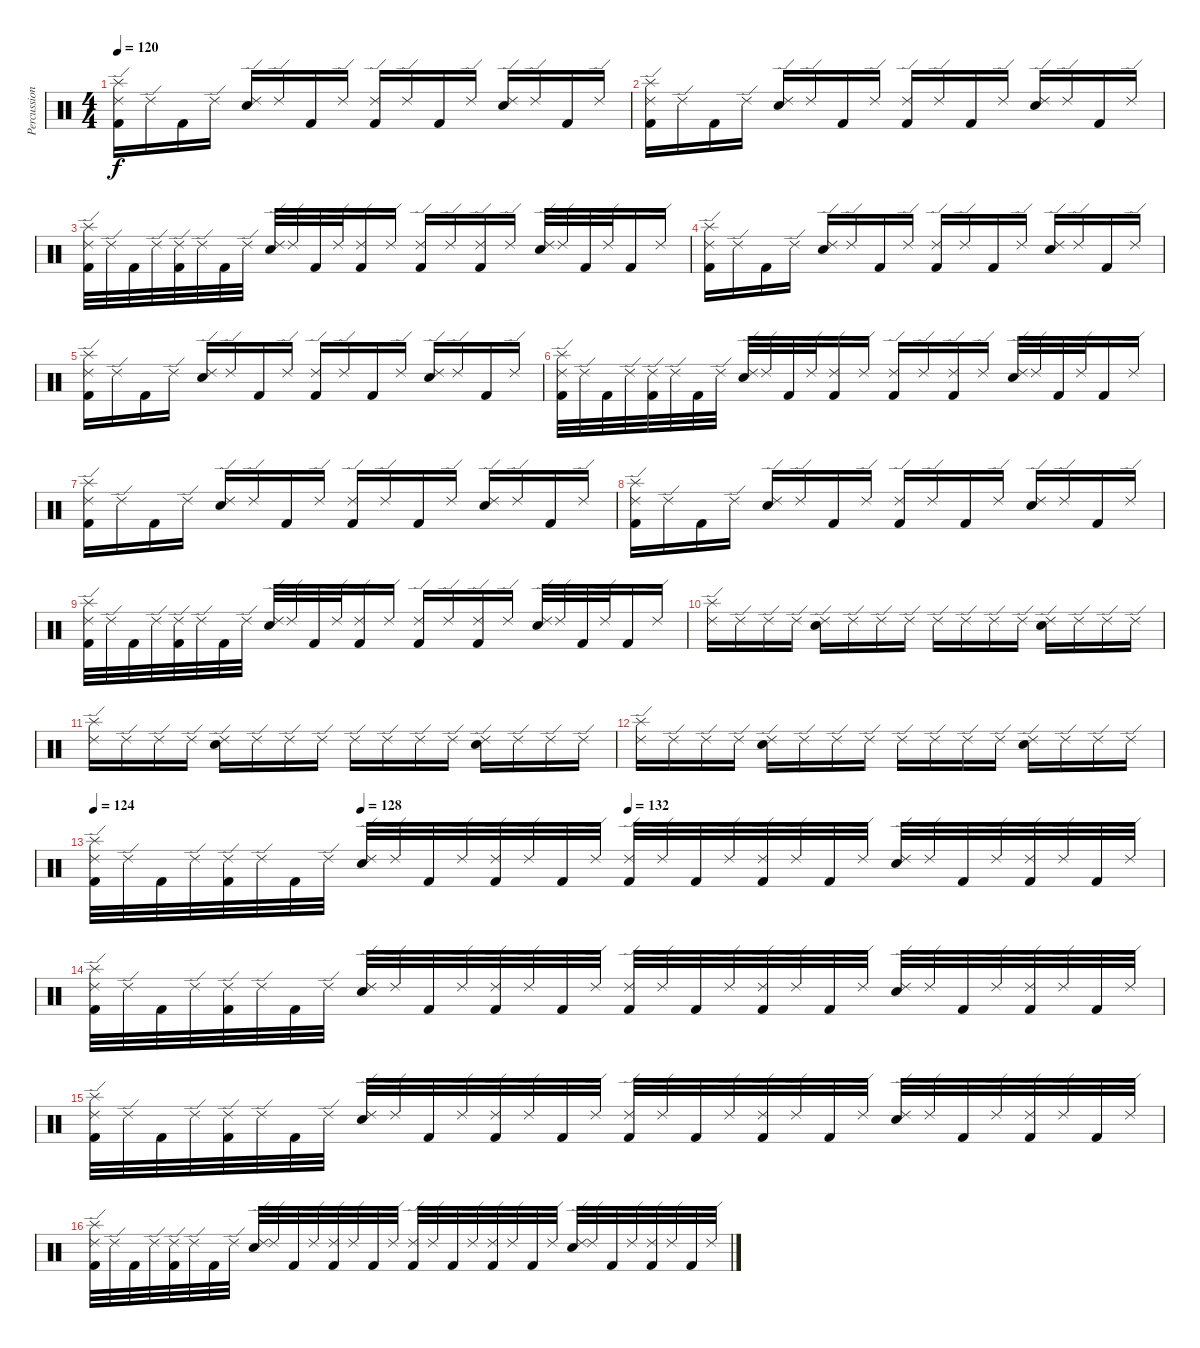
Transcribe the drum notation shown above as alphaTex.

\track ("Percussion" "Percussion") {instrument percussion}
\staff {score}
\articulation defaults
\ts (4 4)
\tempo 120
\clef neutral
\ks c
("Ride (edge) 2" "Kick (hit) 2" "Splash (hit)").16{dy f} "Ride (edge) 2".16 "Kick (hit) 2".16 "Ride (edge) 2".16 ("Snare (hit) 2" "Ride (edge) 2").16 "Ride (edge) 2".16 "Kick (hit) 2".16 "Ride (edge) 2".16 ("Ride (edge) 2" "Kick (hit) 2").16 "Ride (edge) 2".16 "Kick (hit) 2".16 "Ride (edge) 2".16 ("Snare (hit) 2" "Ride (edge) 2").16 "Ride (edge) 2".16 "Kick (hit) 2".16 "Ride (edge) 2".16 |
("Ride (edge) 2" "Kick (hit) 2" "Splash (hit)").16 "Ride (edge) 2".16 "Kick (hit) 2".16 "Ride (edge) 2".16 ("Snare (hit) 2" "Ride (edge) 2").16 "Ride (edge) 2".16 "Kick (hit) 2".16 "Ride (edge) 2".16 ("Ride (edge) 2" "Kick (hit) 2").16 "Ride (edge) 2".16 "Kick (hit) 2".16 "Ride (edge) 2".16 ("Snare (hit) 2" "Ride (edge) 2").16 "Ride (edge) 2".16 "Kick (hit) 2".16 "Ride (edge) 2".16 |
("Ride (edge) 2" "Kick (hit) 2" "Splash (hit)").32 "Ride (edge) 2".32 "Kick (hit) 2".32 "Ride (edge) 2".32 ("Kick (hit) 2" "Ride (edge) 2").32 "Ride (edge) 2".32 "Kick (hit) 2".32 "Ride (edge) 2".32 ("Ride (edge) 2" "Snare (hit) 2").32 "Ride (edge) 2".32 "Kick (hit) 2".32 "Ride (edge) 2".32 ("Kick (hit) 2" "Ride (edge) 2").16 "Ride (edge) 2".16 ("Kick (hit) 2" "Ride (edge) 2").16 "Ride (edge) 2".16 ("Ride (edge) 2" "Kick (hit) 2").16 "Ride (edge) 2".16 ("Snare (hit) 2" "Ride (edge) 2").32 "Ride (edge) 2".32 "Kick (hit) 2".32 "Ride (edge) 2".32 "Kick (hit) 2".16 "Ride (edge) 2".16 |
("Ride (edge) 2" "Kick (hit) 2" "Splash (hit)").16 "Ride (edge) 2".16 "Kick (hit) 2".16 "Ride (edge) 2".16 ("Snare (hit) 2" "Ride (edge) 2").16 "Ride (edge) 2".16 "Kick (hit) 2".16 "Ride (edge) 2".16 ("Ride (edge) 2" "Kick (hit) 2").16 "Ride (edge) 2".16 "Kick (hit) 2".16 "Ride (edge) 2".16 ("Snare (hit) 2" "Ride (edge) 2").16 "Ride (edge) 2".16 "Kick (hit) 2".16 "Ride (edge) 2".16 |
("Ride (edge) 2" "Kick (hit) 2" "Splash (hit)").16 "Ride (edge) 2".16 "Kick (hit) 2".16 "Ride (edge) 2".16 ("Snare (hit) 2" "Ride (edge) 2").16 "Ride (edge) 2".16 "Kick (hit) 2".16 "Ride (edge) 2".16 ("Ride (edge) 2" "Kick (hit) 2").16 "Ride (edge) 2".16 "Kick (hit) 2".16 "Ride (edge) 2".16 ("Snare (hit) 2" "Ride (edge) 2").16 "Ride (edge) 2".16 "Kick (hit) 2".16 "Ride (edge) 2".16 |
("Ride (edge) 2" "Kick (hit) 2" "Splash (hit)").32 "Ride (edge) 2".32 "Kick (hit) 2".32 "Ride (edge) 2".32 ("Kick (hit) 2" "Ride (edge) 2").32 "Ride (edge) 2".32 "Kick (hit) 2".32 "Ride (edge) 2".32 ("Ride (edge) 2" "Snare (hit) 2").32 "Ride (edge) 2".32 "Kick (hit) 2".32 "Ride (edge) 2".32 ("Kick (hit) 2" "Ride (edge) 2").16 "Ride (edge) 2".16 ("Kick (hit) 2" "Ride (edge) 2").16 "Ride (edge) 2".16 ("Ride (edge) 2" "Kick (hit) 2").16 "Ride (edge) 2".16 ("Snare (hit) 2" "Ride (edge) 2").32 "Ride (edge) 2".32 "Kick (hit) 2".32 "Ride (edge) 2".32 "Kick (hit) 2".16 "Ride (edge) 2".16 |
("Ride (edge) 2" "Kick (hit) 2" "Splash (hit)").16 "Ride (edge) 2".16 "Kick (hit) 2".16 "Ride (edge) 2".16 ("Snare (hit) 2" "Ride (edge) 2").16 "Ride (edge) 2".16 "Kick (hit) 2".16 "Ride (edge) 2".16 ("Ride (edge) 2" "Kick (hit) 2").16 "Ride (edge) 2".16 "Kick (hit) 2".16 "Ride (edge) 2".16 ("Snare (hit) 2" "Ride (edge) 2").16 "Ride (edge) 2".16 "Kick (hit) 2".16 "Ride (edge) 2".16 |
("Ride (edge) 2" "Kick (hit) 2" "Splash (hit)").16 "Ride (edge) 2".16 "Kick (hit) 2".16 "Ride (edge) 2".16 ("Snare (hit) 2" "Ride (edge) 2").16 "Ride (edge) 2".16 "Kick (hit) 2".16 "Ride (edge) 2".16 ("Ride (edge) 2" "Kick (hit) 2").16 "Ride (edge) 2".16 "Kick (hit) 2".16 "Ride (edge) 2".16 ("Snare (hit) 2" "Ride (edge) 2").16 "Ride (edge) 2".16 "Kick (hit) 2".16 "Ride (edge) 2".16 |
("Ride (edge) 2" "Kick (hit) 2" "Splash (hit)").32 "Ride (edge) 2".32 "Kick (hit) 2".32 "Ride (edge) 2".32 ("Kick (hit) 2" "Ride (edge) 2").32 "Ride (edge) 2".32 "Kick (hit) 2".32 "Ride (edge) 2".32 ("Ride (edge) 2" "Snare (hit) 2").32 "Ride (edge) 2".32 "Kick (hit) 2".32 "Ride (edge) 2".32 ("Kick (hit) 2" "Ride (edge) 2").16 "Ride (edge) 2".16 ("Kick (hit) 2" "Ride (edge) 2").16 "Ride (edge) 2".16 ("Ride (edge) 2" "Kick (hit) 2").16 "Ride (edge) 2".16 ("Snare (hit) 2" "Ride (edge) 2").32 "Ride (edge) 2".32 "Kick (hit) 2".32 "Ride (edge) 2".32 "Kick (hit) 2".16 "Ride (edge) 2".16 |
("Ride (edge) 2" "Splash (hit)").16 "Ride (edge) 2".16 "Ride (edge) 2".16 "Ride (edge) 2".16 ("Snare (hit) 2" "Ride (edge) 2").16 "Ride (edge) 2".16 "Ride (edge) 2".16 "Ride (edge) 2".16 "Ride (edge) 2".16 "Ride (edge) 2".16 "Ride (edge) 2".16 "Ride (edge) 2".16 ("Snare (hit) 2" "Ride (edge) 2").16 "Ride (edge) 2".16 "Ride (edge) 2".16 "Ride (edge) 2".16 |
("Ride (edge) 2" "Splash (hit)").16 "Ride (edge) 2".16 "Ride (edge) 2".16 "Ride (edge) 2".16 ("Snare (hit) 2" "Ride (edge) 2").16 "Ride (edge) 2".16 "Ride (edge) 2".16 "Ride (edge) 2".16 "Ride (edge) 2".16 "Ride (edge) 2".16 "Ride (edge) 2".16 "Ride (edge) 2".16 ("Snare (hit) 2" "Ride (edge) 2").16 "Ride (edge) 2".16 "Ride (edge) 2".16 "Ride (edge) 2".16 |
("Ride (edge) 2" "Splash (hit)").16 "Ride (edge) 2".16 "Ride (edge) 2".16 "Ride (edge) 2".16 ("Snare (hit) 2" "Ride (edge) 2").16 "Ride (edge) 2".16 "Ride (edge) 2".16 "Ride (edge) 2".16 "Ride (edge) 2".16 "Ride (edge) 2".16 "Ride (edge) 2".16 "Ride (edge) 2".16 ("Snare (hit) 2" "Ride (edge) 2").16 "Ride (edge) 2".16 "Ride (edge) 2".16 "Ride (edge) 2".16 |
\tempo 124
\tempo (128 0.25)
\tempo (132 0.5)
("Ride (edge) 2" "Kick (hit) 2" "Splash (hit)").32 "Ride (edge) 2".32 "Kick (hit) 2".32 "Ride (edge) 2".32 ("Kick (hit) 2" "Ride (edge) 2").32 "Ride (edge) 2".32 "Kick (hit) 2".32 "Ride (edge) 2".32 ("Ride (edge) 2" "Snare (hit) 2").32 "Ride (edge) 2".32 "Kick (hit) 2".32 "Ride (edge) 2".32 ("Kick (hit) 2" "Ride (edge) 2").32 "Ride (edge) 2".32 "Kick (hit) 2".32 "Ride (edge) 2".32 ("Ride (edge) 2" "Kick (hit) 2").32 "Ride (edge) 2".32 "Kick (hit) 2".32 "Ride (edge) 2".32 ("Kick (hit) 2" "Ride (edge) 2").32 "Ride (edge) 2".32 "Kick (hit) 2".32 "Ride (edge) 2".32 ("Snare (hit) 2" "Ride (edge) 2").32 "Ride (edge) 2".32 "Kick (hit) 2".32 "Ride (edge) 2".32 ("Kick (hit) 2" "Ride (edge) 2").32 "Ride (edge) 2".32 "Kick (hit) 2".32 "Ride (edge) 2".32 |
("Ride (edge) 2" "Kick (hit) 2" "Splash (hit)").32 "Ride (edge) 2".32 "Kick (hit) 2".32 "Ride (edge) 2".32 ("Kick (hit) 2" "Ride (edge) 2").32 "Ride (edge) 2".32 "Kick (hit) 2".32 "Ride (edge) 2".32 ("Ride (edge) 2" "Snare (hit) 2").32 "Ride (edge) 2".32 "Kick (hit) 2".32 "Ride (edge) 2".32 ("Kick (hit) 2" "Ride (edge) 2").32 "Ride (edge) 2".32 "Kick (hit) 2".32 "Ride (edge) 2".32 ("Ride (edge) 2" "Kick (hit) 2").32 "Ride (edge) 2".32 "Kick (hit) 2".32 "Ride (edge) 2".32 ("Kick (hit) 2" "Ride (edge) 2").32 "Ride (edge) 2".32 "Kick (hit) 2".32 "Ride (edge) 2".32 ("Snare (hit) 2" "Ride (edge) 2").32 "Ride (edge) 2".32 "Kick (hit) 2".32 "Ride (edge) 2".32 ("Kick (hit) 2" "Ride (edge) 2").32 "Ride (edge) 2".32 "Kick (hit) 2".32 "Ride (edge) 2".32 |
("Ride (edge) 2" "Kick (hit) 2" "Splash (hit)").32 "Ride (edge) 2".32 "Kick (hit) 2".32 "Ride (edge) 2".32 ("Kick (hit) 2" "Ride (edge) 2").32 "Ride (edge) 2".32 "Kick (hit) 2".32 "Ride (edge) 2".32 ("Ride (edge) 2" "Snare (hit) 2").32 "Ride (edge) 2".32 "Kick (hit) 2".32 "Ride (edge) 2".32 ("Kick (hit) 2" "Ride (edge) 2").32 "Ride (edge) 2".32 "Kick (hit) 2".32 "Ride (edge) 2".32 ("Ride (edge) 2" "Kick (hit) 2").32 "Ride (edge) 2".32 "Kick (hit) 2".32 "Ride (edge) 2".32 ("Kick (hit) 2" "Ride (edge) 2").32 "Ride (edge) 2".32 "Kick (hit) 2".32 "Ride (edge) 2".32 ("Snare (hit) 2" "Ride (edge) 2").32 "Ride (edge) 2".32 "Kick (hit) 2".32 "Ride (edge) 2".32 ("Kick (hit) 2" "Ride (edge) 2").32 "Ride (edge) 2".32 "Kick (hit) 2".32 "Ride (edge) 2".32 |
("Ride (edge) 2" "Kick (hit) 2" "Splash (hit)").32 "Ride (edge) 2".32 "Kick (hit) 2".32 "Ride (edge) 2".32 ("Kick (hit) 2" "Ride (edge) 2").32 "Ride (edge) 2".32 "Kick (hit) 2".32 "Ride (edge) 2".32 ("Ride (edge) 2" "Snare (hit) 2").32 "Ride (edge) 2".32 "Kick (hit) 2".32 "Ride (edge) 2".32 ("Kick (hit) 2" "Ride (edge) 2").32 "Ride (edge) 2".32 "Kick (hit) 2".32 "Ride (edge) 2".32 ("Ride (edge) 2" "Kick (hit) 2").32 "Ride (edge) 2".32 "Kick (hit) 2".32 "Ride (edge) 2".32 ("Kick (hit) 2" "Ride (edge) 2").32 "Ride (edge) 2".32 "Kick (hit) 2".32 "Ride (edge) 2".32 ("Snare (hit) 2" "Ride (edge) 2").32 "Ride (edge) 2".32 "Kick (hit) 2".32 "Ride (edge) 2".32 ("Kick (hit) 2" "Ride (edge) 2").32 "Ride (edge) 2".32 "Kick (hit) 2".32 "Ride (edge) 2".32
